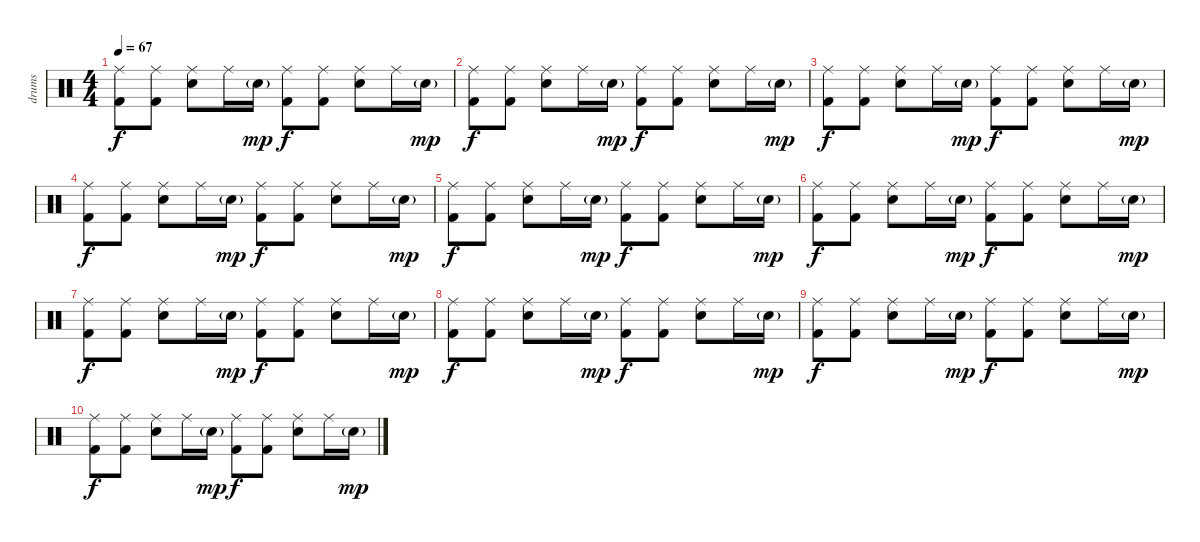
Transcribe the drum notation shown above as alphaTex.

\track ("drums" "drums") {instrument percussion}
\staff {score}
\articulation defaults
\ts (4 4)
\tempo 67
\clef neutral
\ks c
("Ride (middle)" "Kick (hit) 2").8{dy f} ("Ride (middle)" "Kick (hit) 2").8 ("Ride (middle)" "Snare (hit) 2").8 "Ride (middle)".16 "Snare (hit) 2"{g}.16{dy mp} ("Ride (middle)" "Kick (hit) 2").8{dy f} ("Ride (middle)" "Kick (hit) 2").8 ("Ride (middle)" "Snare (hit) 2").8 "Ride (middle)".16 "Snare (hit) 2"{g}.16{dy mp} |
("Ride (middle)" "Kick (hit) 2").8{dy f} ("Ride (middle)" "Kick (hit) 2").8 ("Ride (middle)" "Snare (hit) 2").8 "Ride (middle)".16 "Snare (hit) 2"{g}.16{dy mp} ("Ride (middle)" "Kick (hit) 2").8{dy f} ("Ride (middle)" "Kick (hit) 2").8 ("Ride (middle)" "Snare (hit) 2").8 "Ride (middle)".16 "Snare (hit) 2"{g}.16{dy mp} |
("Ride (middle)" "Kick (hit) 2").8{dy f} ("Ride (middle)" "Kick (hit) 2").8 ("Ride (middle)" "Snare (hit) 2").8 "Ride (middle)".16 "Snare (hit) 2"{g}.16{dy mp} ("Ride (middle)" "Kick (hit) 2").8{dy f} ("Ride (middle)" "Kick (hit) 2").8 ("Ride (middle)" "Snare (hit) 2").8 "Ride (middle)".16 "Snare (hit) 2"{g}.16{dy mp} |
("Ride (middle)" "Kick (hit) 2").8{dy f} ("Ride (middle)" "Kick (hit) 2").8 ("Ride (middle)" "Snare (hit) 2").8 "Ride (middle)".16 "Snare (hit) 2"{g}.16{dy mp} ("Ride (middle)" "Kick (hit) 2").8{dy f} ("Ride (middle)" "Kick (hit) 2").8 ("Ride (middle)" "Snare (hit) 2").8 "Ride (middle)".16 "Snare (hit) 2"{g}.16{dy mp} |
("Ride (middle)" "Kick (hit) 2").8{dy f} ("Ride (middle)" "Kick (hit) 2").8 ("Ride (middle)" "Snare (hit) 2").8 "Ride (middle)".16 "Snare (hit) 2"{g}.16{dy mp} ("Ride (middle)" "Kick (hit) 2").8{dy f} ("Ride (middle)" "Kick (hit) 2").8 ("Ride (middle)" "Snare (hit) 2").8 "Ride (middle)".16 "Snare (hit) 2"{g}.16{dy mp} |
("Ride (middle)" "Kick (hit) 2").8{dy f} ("Ride (middle)" "Kick (hit) 2").8 ("Ride (middle)" "Snare (hit) 2").8 "Ride (middle)".16 "Snare (hit) 2"{g}.16{dy mp} ("Ride (middle)" "Kick (hit) 2").8{dy f} ("Ride (middle)" "Kick (hit) 2").8 ("Ride (middle)" "Snare (hit) 2").8 "Ride (middle)".16 "Snare (hit) 2"{g}.16{dy mp} |
("Ride (middle)" "Kick (hit) 2").8{dy f} ("Ride (middle)" "Kick (hit) 2").8 ("Ride (middle)" "Snare (hit) 2").8 "Ride (middle)".16 "Snare (hit) 2"{g}.16{dy mp} ("Ride (middle)" "Kick (hit) 2").8{dy f} ("Ride (middle)" "Kick (hit) 2").8 ("Ride (middle)" "Snare (hit) 2").8 "Ride (middle)".16 "Snare (hit) 2"{g}.16{dy mp} |
("Ride (middle)" "Kick (hit) 2").8{dy f} ("Ride (middle)" "Kick (hit) 2").8 ("Ride (middle)" "Snare (hit) 2").8 "Ride (middle)".16 "Snare (hit) 2"{g}.16{dy mp} ("Ride (middle)" "Kick (hit) 2").8{dy f} ("Ride (middle)" "Kick (hit) 2").8 ("Ride (middle)" "Snare (hit) 2").8 "Ride (middle)".16 "Snare (hit) 2"{g}.16{dy mp} |
("Ride (middle)" "Kick (hit) 2").8{dy f} ("Ride (middle)" "Kick (hit) 2").8 ("Ride (middle)" "Snare (hit) 2").8 "Ride (middle)".16 "Snare (hit) 2"{g}.16{dy mp} ("Ride (middle)" "Kick (hit) 2").8{dy f} ("Ride (middle)" "Kick (hit) 2").8 ("Ride (middle)" "Snare (hit) 2").8{volume 0} "Ride (middle)".16 "Snare (hit) 2"{g}.16{dy mp} |
("Ride (middle)" "Kick (hit) 2").8{dy f} ("Ride (middle)" "Kick (hit) 2").8 ("Ride (middle)" "Snare (hit) 2").8 "Ride (middle)".16 "Snare (hit) 2"{g}.16{dy mp} ("Ride (middle)" "Kick (hit) 2").8{dy f} ("Ride (middle)" "Kick (hit) 2").8 ("Ride (middle)" "Snare (hit) 2").8 "Ride (middle)".16 "Snare (hit) 2"{g}.16{dy mp}
